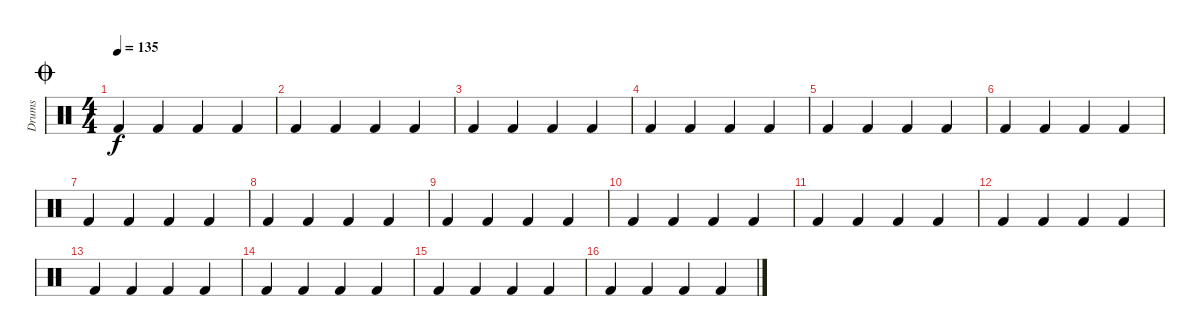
\track ("Drums" "Drums") {instrument percussion}
\staff {score}
\articulation defaults
\ts (4 4)
\jump coda
\tempo 135
\clef neutral
\ks c "Kick (hit) 2".4{dy f} "Kick (hit) 2".4 "Kick (hit) 2".4 "Kick (hit) 2".4
|
"Kick (hit) 2".4 "Kick (hit) 2".4 "Kick (hit) 2".4 "Kick (hit) 2".4 |
"Kick (hit) 2".4 "Kick (hit) 2".4 "Kick (hit) 2".4 "Kick (hit) 2".4 |
"Kick (hit) 2".4 "Kick (hit) 2".4 "Kick (hit) 2".4 "Kick (hit) 2".4 |
"Kick (hit) 2".4 "Kick (hit) 2".4 "Kick (hit) 2".4 "Kick (hit) 2".4 |
"Kick (hit) 2".4 "Kick (hit) 2".4 "Kick (hit) 2".4 "Kick (hit) 2".4 |
"Kick (hit) 2".4 "Kick (hit) 2".4 "Kick (hit) 2".4 "Kick (hit) 2".4 |
"Kick (hit) 2".4 "Kick (hit) 2".4 "Kick (hit) 2".4 "Kick (hit) 2".4 |
"Kick (hit) 2".4 "Kick (hit) 2".4 "Kick (hit) 2".4 "Kick (hit) 2".4 |
"Kick (hit) 2".4 "Kick (hit) 2".4 "Kick (hit) 2".4 "Kick (hit) 2".4 |
"Kick (hit) 2".4 "Kick (hit) 2".4 "Kick (hit) 2".4 "Kick (hit) 2".4 |
"Kick (hit) 2".4 "Kick (hit) 2".4 "Kick (hit) 2".4 "Kick (hit) 2".4 |
"Kick (hit) 2".4 "Kick (hit) 2".4 "Kick (hit) 2".4 "Kick (hit) 2".4 |
"Kick (hit) 2".4 "Kick (hit) 2".4 "Kick (hit) 2".4 "Kick (hit) 2".4 |
"Kick (hit) 2".4 "Kick (hit) 2".4 "Kick (hit) 2".4 "Kick (hit) 2".4 |
"Kick (hit) 2".4 "Kick (hit) 2".4 "Kick (hit) 2".4 "Kick (hit) 2".4
